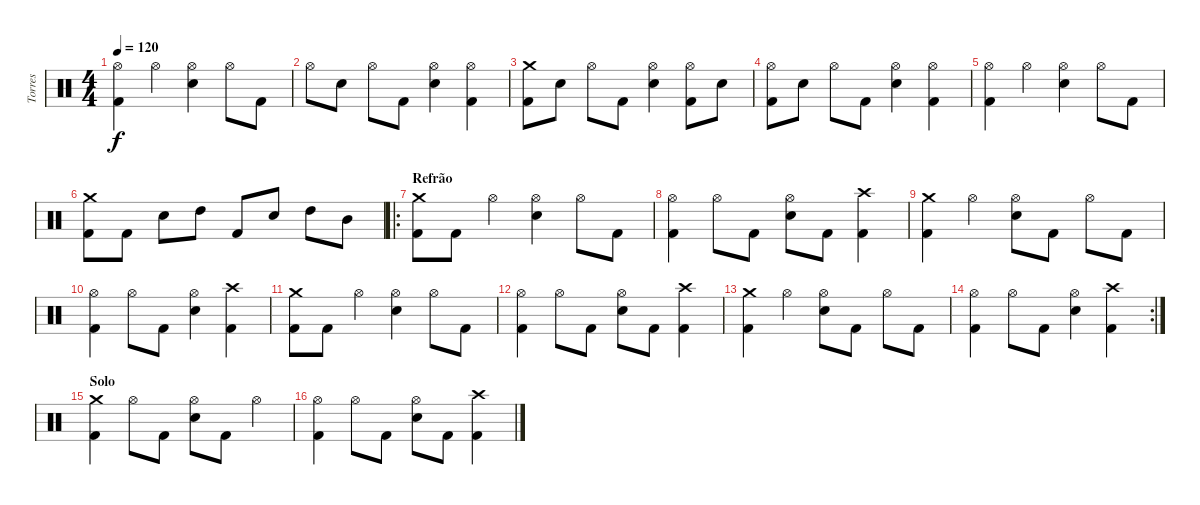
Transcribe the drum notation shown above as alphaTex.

\track ("Torres" "Torres") {instrument percussion}
\staff {score}
\articulation defaults
\ts (4 4)
\tempo 120
\clef neutral
\ks c
("Hi-Hat (open)" "Kick (hit) 2").4{dy f} "Hi-Hat (open)".4 ("Hi-Hat (open)" "Electric Snare (hit)").4 "Hi-Hat (open)".8 "Kick (hit) 2".8 |
"Hi-Hat (open)".8 "Electric Snare (hit)".8 "Hi-Hat (open)".8 "Kick (hit) 2".8 ("Hi-Hat (open)" "Electric Snare (hit)").4 ("Hi-Hat (open)" "Kick (hit) 2").4 |
("Crash medium (hit)" "Kick (hit) 2").8 "Electric Snare (hit)".8 "Hi-Hat (open)".8 "Kick (hit) 2".8 ("Hi-Hat (open)" "Electric Snare (hit)").4 ("Hi-Hat (open)" "Kick (hit) 2").8 "Electric Snare (hit)".8 |
("Hi-Hat (open)" "Kick (hit) 2").8 "Electric Snare (hit)".8 "Hi-Hat (open)".8 "Kick (hit) 2".8 ("Hi-Hat (open)" "Electric Snare (hit)").4 ("Hi-Hat (open)" "Kick (hit) 2").4 |
("Hi-Hat (open)" "Kick (hit) 2").4 "Hi-Hat (open)".4 ("Hi-Hat (open)" "Electric Snare (hit)").4 "Hi-Hat (open)".8 "Kick (hit) 2".8 |
("Crash medium (hit)" "Kick (hit) 2").8 "Kick (hit) 2".8 "Electric Snare (hit)".8 "High Tom (hit)".8 "Kick (hit) 2".8 "Electric Snare (hit)".8 "High Tom (hit)".8 "Mid Tom (hit)".8 |
\ro
\section ("" "Refrão")
("Crash medium (hit)" "Kick (hit) 2").8 "Kick (hit) 2".8 "Hi-Hat (open)".4 ("Hi-Hat (open)" "Electric Snare (hit)").4 "Hi-Hat (open)".8 "Kick (hit) 2".8 |
("Hi-Hat (open)" "Kick (hit) 2").4 "Hi-Hat (open)".8 "Kick (hit) 2".8 ("Hi-Hat (open)" "Electric Snare (hit)").8 "Kick (hit) 2".8 ("Crash high (hit)" "Kick (hit) 2").4 |
("Crash medium (hit)" "Kick (hit) 2").4 "Hi-Hat (open)".4 ("Hi-Hat (open)" "Electric Snare (hit)").8 "Kick (hit) 2".8 "Hi-Hat (open)".8 "Kick (hit) 2".8 |
("Hi-Hat (open)" "Kick (hit) 2").4 "Hi-Hat (open)".8 "Kick (hit) 2".8 ("Hi-Hat (open)" "Electric Snare (hit)").4 ("Crash high (hit)" "Kick (hit) 2").4 |
("Crash medium (hit)" "Kick (hit) 2").8 "Kick (hit) 2".8 "Hi-Hat (open)".4 ("Hi-Hat (open)" "Electric Snare (hit)").4 "Hi-Hat (open)".8 "Kick (hit) 2".8 |
("Hi-Hat (open)" "Kick (hit) 2").4 "Hi-Hat (open)".8 "Kick (hit) 2".8 ("Hi-Hat (open)" "Electric Snare (hit)").8 "Kick (hit) 2".8 ("Crash high (hit)" "Kick (hit) 2").4 |
("Crash medium (hit)" "Kick (hit) 2").4 "Hi-Hat (open)".4 ("Hi-Hat (open)" "Electric Snare (hit)").8 "Kick (hit) 2".8 "Hi-Hat (open)".8 "Kick (hit) 2".8 |
\rc 2
("Hi-Hat (open)" "Kick (hit) 2").4 "Hi-Hat (open)".8 "Kick (hit) 2".8 ("Hi-Hat (open)" "Electric Snare (hit)").4 ("Crash high (hit)" "Kick (hit) 2").4 |
\section ("" "Solo")
("Crash medium (hit)" "Kick (hit) 2").4 "Hi-Hat (open)".8 "Kick (hit) 2".8 ("Hi-Hat (open)" "Electric Snare (hit)").8 "Kick (hit) 2".8 "Hi-Hat (open)".4 |
("Hi-Hat (open)" "Kick (hit) 2").4 "Hi-Hat (open)".8 "Kick (hit) 2".8 ("Hi-Hat (open)" "Electric Snare (hit)").8 "Kick (hit) 2".8 ("Crash high (hit)" "Kick (hit) 2").4
